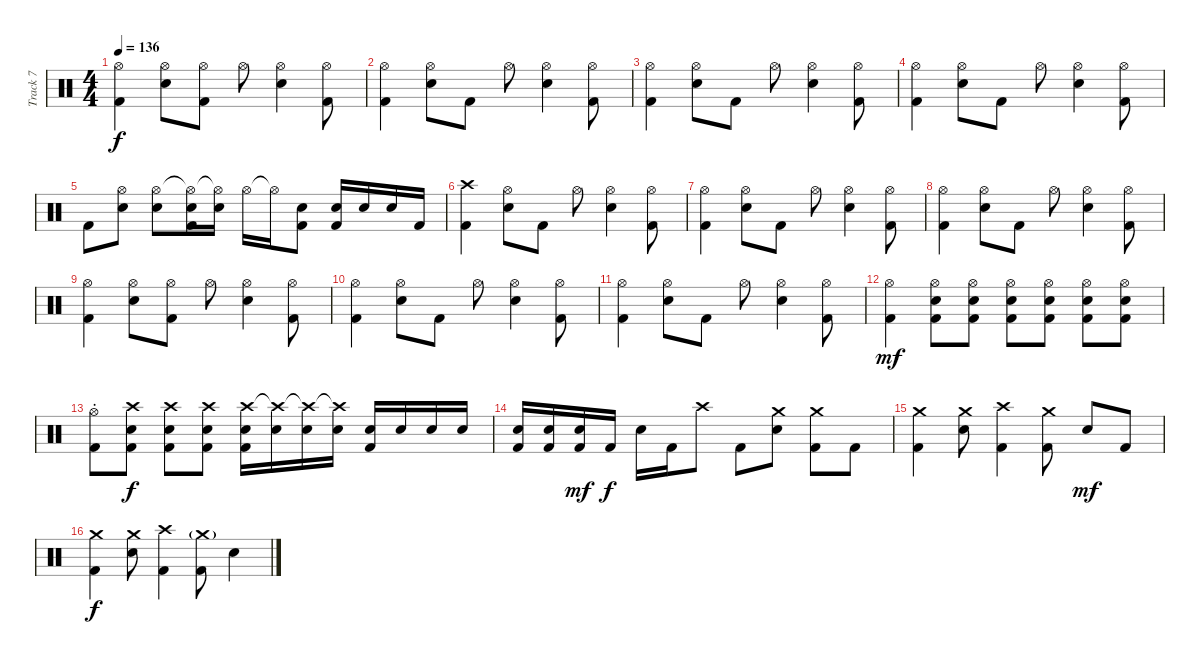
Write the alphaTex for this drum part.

\track ("Track 7" "Track 7") {instrument percussion}
\staff {score}
\articulation defaults
\ts (4 4)
\tempo 136
\clef neutral
\ks c
("Hi-Hat (open)" "Kick (hit) 2").4{dy f} ("Hi-Hat (open)" "Electric Snare (hit)").8 ("Hi-Hat (open)" "Kick (hit) 2").8 "Hi-Hat (open)".8 ("Hi-Hat (open)" "Electric Snare (hit)").4 ("Hi-Hat (open)" "Kick (hit) 2").8 |
("Hi-Hat (open)" "Kick (hit) 2").4 ("Hi-Hat (open)" "Electric Snare (hit)").8 "Kick (hit) 2".8 "Hi-Hat (open)".8 ("Hi-Hat (open)" "Electric Snare (hit)").4 ("Hi-Hat (open)" "Kick (hit) 2").8 |
("Hi-Hat (open)" "Kick (hit) 2").4 ("Hi-Hat (open)" "Electric Snare (hit)").8 "Kick (hit) 2".8 "Hi-Hat (open)".8 ("Hi-Hat (open)" "Electric Snare (hit)").4 ("Hi-Hat (open)" "Kick (hit) 2").8 |
("Hi-Hat (open)" "Kick (hit) 2").4 ("Hi-Hat (open)" "Electric Snare (hit)").8 "Kick (hit) 2".8 "Hi-Hat (open)".8 ("Hi-Hat (open)" "Electric Snare (hit)").4 ("Hi-Hat (open)" "Kick (hit) 2").8 |
"Kick (hit) 2".8 ("Hi-Hat (open)" "Electric Snare (hit)").8 ("Hi-Hat (open)" "Electric Snare (hit)").8 ("Hi-Hat (open)"{t} "Electric Snare (hit)" "Kick (hit) 2").16 ("Hi-Hat (open)"{t} "Electric Snare (hit)").16 "Hi-Hat (open)".16 "Hi-Hat (open)"{t}.16 ("Electric Snare (hit)" "Kick (hit) 2").8 ("Electric Snare (hit)" "Kick (hit) 2").16 "Electric Snare (hit)".16 "Electric Snare (hit)".16 "Kick (hit) 2".16 |
("Crash high (hit)" "Kick (hit) 2").4 ("Hi-Hat (open)" "Electric Snare (hit)").8 "Kick (hit) 2".8 "Hi-Hat (open)".8 ("Hi-Hat (open)" "Electric Snare (hit)").4 ("Hi-Hat (open)" "Kick (hit) 2").8 |
("Hi-Hat (open)" "Kick (hit) 2").4 ("Hi-Hat (open)" "Electric Snare (hit)").8 "Kick (hit) 2".8 "Hi-Hat (open)".8 ("Hi-Hat (open)" "Electric Snare (hit)").4 ("Hi-Hat (open)" "Kick (hit) 2").8 |
("Hi-Hat (open)" "Kick (hit) 2").4 ("Hi-Hat (open)" "Electric Snare (hit)").8 "Kick (hit) 2".8 "Hi-Hat (open)".8 ("Hi-Hat (open)" "Electric Snare (hit)").4 ("Hi-Hat (open)" "Kick (hit) 2").8 |
("Hi-Hat (open)" "Kick (hit) 2").4 ("Hi-Hat (open)" "Electric Snare (hit)").8 ("Hi-Hat (open)" "Kick (hit) 2").8 "Hi-Hat (open)".8 ("Hi-Hat (open)" "Electric Snare (hit)").4 ("Hi-Hat (open)" "Kick (hit) 2").8 |
("Hi-Hat (open)" "Kick (hit) 2").4 ("Hi-Hat (open)" "Electric Snare (hit)").8 "Kick (hit) 2".8 "Hi-Hat (open)".8 ("Hi-Hat (open)" "Electric Snare (hit)").4 ("Hi-Hat (open)" "Kick (hit) 2").8 |
("Hi-Hat (open)" "Kick (hit) 2").4 ("Hi-Hat (open)" "Electric Snare (hit)").8 "Kick (hit) 2".8 "Hi-Hat (open)".8 ("Hi-Hat (open)" "Electric Snare (hit)").4 ("Hi-Hat (open)" "Kick (hit) 2").8 |
("Hi-Hat (open)" "Kick (hit) 2").4{dy mf} ("Hi-Hat (open)" "Electric Snare (hit)" "Kick (hit) 2").8 ("Hi-Hat (open)" "Electric Snare (hit)" "Kick (hit) 2").8 ("Hi-Hat (open)" "Electric Snare (hit)" "Kick (hit) 2").8 ("Hi-Hat (open)" "Electric Snare (hit)" "Kick (hit) 2").8 ("Hi-Hat (open)" "Electric Snare (hit)" "Kick (hit) 2").8 ("Hi-Hat (open)" "Electric Snare (hit)" "Kick (hit) 2").8 |
("Hi-Hat (open)"{st} "Kick (hit) 2"{st}).8 ("Crash high (hit)" "Electric Snare (hit)" "Kick (hit) 2").8{dy f} ("Crash high (hit)" "Electric Snare (hit)" "Kick (hit) 2").8 ("Crash high (hit)" "Electric Snare (hit)" "Kick (hit) 2").8 ("Crash high (hit)" "Electric Snare (hit)" "Kick (hit) 2").16 ("Crash high (hit)"{t} "Electric Snare (hit)").16 ("Crash high (hit)"{t} "Electric Snare (hit)").16 ("Crash high (hit)"{t} "Electric Snare (hit)").16 ("Electric Snare (hit)" "Kick (hit) 2").16 "Electric Snare (hit)".16 "Electric Snare (hit)".16 "Electric Snare (hit)".16 |
("Electric Snare (hit)" "Kick (hit) 2").16 ("Electric Snare (hit)" "Kick (hit) 2").16 ("Electric Snare (hit)" "Kick (hit) 2").16{dy mf} "Kick (hit) 2".16{dy f} "Electric Snare (hit)".16 "Kick (hit) 2".16 "Crash high (hit)".8 "Kick (hit) 2".8 ("Crash medium (hit)" "Electric Snare (hit)").8 ("Crash medium (hit)" "Kick (hit) 2").8 "Kick (hit) 2".8 |
("Crash medium (hit)" "Kick (hit) 2").4 ("Crash medium (hit)" "Electric Snare (hit)").8 ("Crash high (hit)" "Kick (hit) 2").4 ("Crash medium (hit)" "Kick (hit) 2").8 "Electric Snare (hit)".8{dy mf} "Kick (hit) 2".8 |
("Crash medium (hit)" "Kick (hit) 2").4{dy f} ("Crash medium (hit)" "Electric Snare (hit)").8 ("Crash high (hit)" "Kick (hit) 2").4 ("Crash medium (hit)"{g} "Kick (hit) 2").8 "Electric Snare (hit)".4
